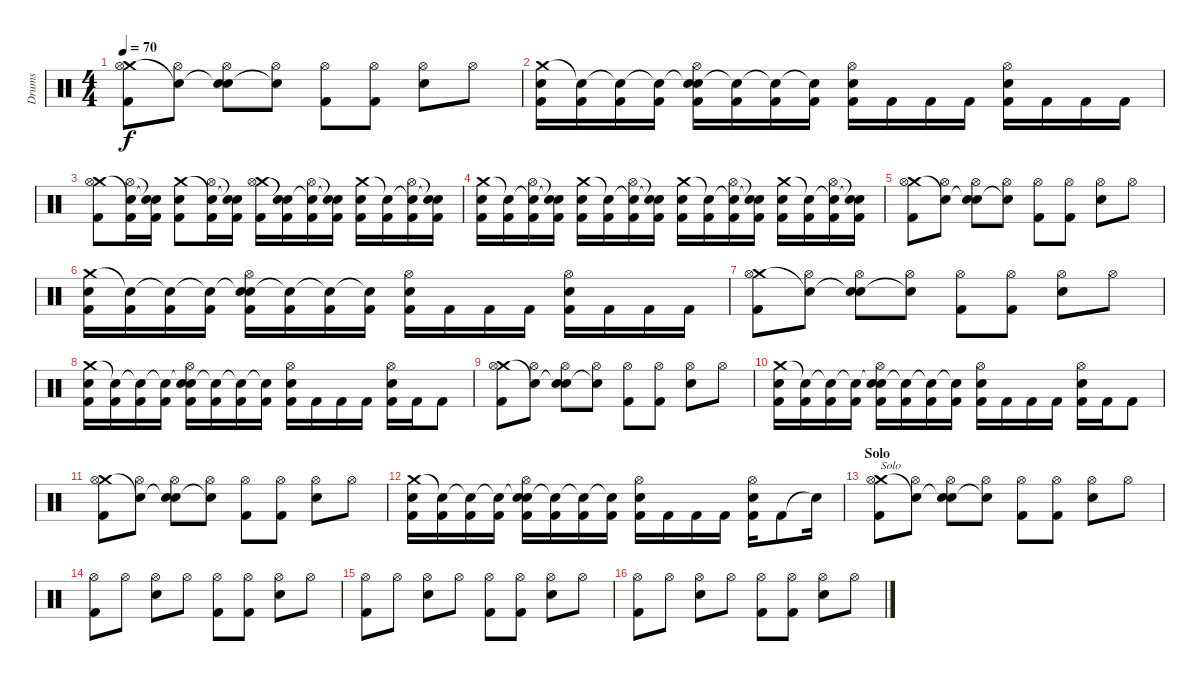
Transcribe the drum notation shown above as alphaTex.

\track ("Drums" "Drums") {instrument percussion}
\staff {score}
\articulation defaults
\ts (4 4)
\tempo 70
\clef neutral
\ks c
("Crash medium (hit)" "Hi-Hat (open)" "Kick (hit) 2").8{dy f} ("Snare (hit)"{t} "Hi-Hat (open)").8 ("Snare (hit)"{t} "Hi-Hat (open)" "Electric Snare (hit)").8 ("Snare (hit)"{t} "Hi-Hat (open)").8 ("Hi-Hat (open)" "Kick (hit) 2").8 ("Hi-Hat (open)" "Kick (hit) 2").8 ("Hi-Hat (open)" "Electric Snare (hit)").8 "Hi-Hat (open)".8 |
("Crash medium (hit)" "Electric Snare (hit)" "Kick (hit) 2").16 ("Snare (hit)"{t} "Kick (hit) 2").16 ("Snare (hit)"{t} "Kick (hit) 2").16 ("Snare (hit)"{t} "Kick (hit) 2").16 ("Snare (hit)"{t} "Hi-Hat (open)" "Electric Snare (hit)" "Kick (hit) 2").16 ("Snare (hit)"{t} "Kick (hit) 2").16 ("Snare (hit)"{t} "Kick (hit) 2").16 ("Snare (hit)"{t} "Kick (hit) 2").16 ("Hi-Hat (open)" "Electric Snare (hit)" "Kick (hit) 2").16 "Kick (hit) 2".16 "Kick (hit) 2".16 "Kick (hit) 2".16 ("Hi-Hat (open)" "Electric Snare (hit)" "Kick (hit) 2").16 "Kick (hit) 2".16 "Kick (hit) 2".16 "Kick (hit) 2".16 |
("Crash medium (hit)" "Hi-Hat (open)" "Kick (hit) 2").8 ("Snare (hit)"{t} "Hi-Hat (open)" "Kick (hit) 2").16 ("Snare (hit)"{t} "Snare (hit)"{t} "Kick (hit) 2").16 ("Crash medium (hit)" "Electric Snare (hit)" "Kick (hit) 2").8 ("Snare (hit)"{t} "Hi-Hat (open)" "Kick (hit) 2").16 ("Snare (hit)"{t} "Snare (hit)"{t} "Kick (hit) 2").16 ("Crash medium (hit)" "Hi-Hat (open)" "Kick (hit) 2").16 ("Snare (hit)"{t} "Snare (hit)"{t} "Kick (hit) 2").16 ("Snare (hit)"{t} "Hi-Hat (open)" "Kick (hit) 2").16 ("Snare (hit)"{t} "Snare (hit)"{t} "Kick (hit) 2").16 ("Crash medium (hit)" "Electric Snare (hit)" "Kick (hit) 2").16 ("Snare (hit)"{t} "Kick (hit) 2").16 ("Snare (hit)"{t} "Hi-Hat (open)" "Kick (hit) 2").16 ("Snare (hit)"{t} "Snare (hit)"{t} "Kick (hit) 2").16 |
("Crash medium (hit)" "Electric Snare (hit)" "Kick (hit) 2").16 ("Snare (hit)"{t} "Kick (hit) 2").16 ("Snare (hit)"{t} "Hi-Hat (open)" "Kick (hit) 2").16 ("Snare (hit)"{t} "Snare (hit)"{t} "Kick (hit) 2").16 ("Crash medium (hit)" "Electric Snare (hit)" "Kick (hit) 2").16 ("Snare (hit)"{t} "Kick (hit) 2").16 ("Snare (hit)"{t} "Hi-Hat (open)" "Kick (hit) 2").16 ("Snare (hit)"{t} "Snare (hit)"{t} "Kick (hit) 2").16 ("Crash medium (hit)" "Electric Snare (hit)" "Kick (hit) 2").16 ("Snare (hit)"{t} "Kick (hit) 2").16 ("Snare (hit)"{t} "Hi-Hat (open)" "Kick (hit) 2").16 ("Snare (hit)"{t} "Snare (hit)"{t} "Kick (hit) 2").16 ("Crash medium (hit)" "Electric Snare (hit)" "Kick (hit) 2").16 ("Snare (hit)"{t} "Kick (hit) 2").16 ("Snare (hit)"{t} "Hi-Hat (open)" "Kick (hit) 2").16 ("Snare (hit)"{t} "Snare (hit)"{t} "Kick (hit) 2").16 |
("Crash medium (hit)" "Hi-Hat (open)" "Kick (hit) 2").8 ("Snare (hit)"{t} "Hi-Hat (open)").8 ("Snare (hit)"{t} "Hi-Hat (open)" "Electric Snare (hit)").8 ("Snare (hit)"{t} "Hi-Hat (open)").8 ("Hi-Hat (open)" "Kick (hit) 2").8 ("Hi-Hat (open)" "Kick (hit) 2").8 ("Hi-Hat (open)" "Electric Snare (hit)").8 "Hi-Hat (open)".8 |
("Crash medium (hit)" "Electric Snare (hit)" "Kick (hit) 2").16 ("Snare (hit)"{t} "Kick (hit) 2").16 ("Snare (hit)"{t} "Kick (hit) 2").16 ("Snare (hit)"{t} "Kick (hit) 2").16 ("Snare (hit)"{t} "Hi-Hat (open)" "Electric Snare (hit)" "Kick (hit) 2").16 ("Snare (hit)"{t} "Kick (hit) 2").16 ("Snare (hit)"{t} "Kick (hit) 2").16 ("Snare (hit)"{t} "Kick (hit) 2").16 ("Hi-Hat (open)" "Electric Snare (hit)" "Kick (hit) 2").16 "Kick (hit) 2".16 "Kick (hit) 2".16 "Kick (hit) 2".16 ("Hi-Hat (open)" "Electric Snare (hit)" "Kick (hit) 2").16 "Kick (hit) 2".16 "Kick (hit) 2".16 "Kick (hit) 2".16 |
("Crash medium (hit)" "Hi-Hat (open)" "Kick (hit) 2").8 ("Snare (hit)"{t} "Hi-Hat (open)").8 ("Snare (hit)"{t} "Hi-Hat (open)" "Electric Snare (hit)").8 ("Snare (hit)"{t} "Hi-Hat (open)").8 ("Hi-Hat (open)" "Kick (hit) 2").8 ("Hi-Hat (open)" "Kick (hit) 2").8 ("Hi-Hat (open)" "Electric Snare (hit)").8 "Hi-Hat (open)".8 |
("Crash medium (hit)" "Electric Snare (hit)" "Kick (hit) 2").16 ("Snare (hit)"{t} "Kick (hit) 2").16 ("Snare (hit)"{t} "Kick (hit) 2").16 ("Snare (hit)"{t} "Kick (hit) 2").16 ("Snare (hit)"{t} "Hi-Hat (open)" "Electric Snare (hit)" "Kick (hit) 2").16 ("Snare (hit)"{t} "Kick (hit) 2").16 ("Snare (hit)"{t} "Kick (hit) 2").16 ("Snare (hit)"{t} "Kick (hit) 2").16 ("Hi-Hat (open)" "Electric Snare (hit)" "Kick (hit) 2").16 "Kick (hit) 2".16 "Kick (hit) 2".16 "Kick (hit) 2".16 ("Hi-Hat (open)" "Electric Snare (hit)" "Kick (hit) 2").16 "Kick (hit) 2".16 "Kick (hit) 2".8 |
("Crash medium (hit)" "Hi-Hat (open)" "Kick (hit) 2").8 ("Snare (hit)"{t} "Hi-Hat (open)").8 ("Snare (hit)"{t} "Hi-Hat (open)" "Electric Snare (hit)").8 ("Snare (hit)"{t} "Hi-Hat (open)").8 ("Hi-Hat (open)" "Kick (hit) 2").8 ("Hi-Hat (open)" "Kick (hit) 2").8 ("Hi-Hat (open)" "Electric Snare (hit)").8 "Hi-Hat (open)".8 |
("Crash medium (hit)" "Electric Snare (hit)" "Kick (hit) 2").16 ("Snare (hit)"{t} "Kick (hit) 2").16 ("Snare (hit)"{t} "Kick (hit) 2").16 ("Snare (hit)"{t} "Kick (hit) 2").16 ("Snare (hit)"{t} "Hi-Hat (open)" "Electric Snare (hit)" "Kick (hit) 2").16 ("Snare (hit)"{t} "Kick (hit) 2").16 ("Snare (hit)"{t} "Kick (hit) 2").16 ("Snare (hit)"{t} "Kick (hit) 2").16 ("Hi-Hat (open)" "Electric Snare (hit)" "Kick (hit) 2").16 "Kick (hit) 2".16 "Kick (hit) 2".16 "Kick (hit) 2".16 ("Hi-Hat (open)" "Electric Snare (hit)" "Kick (hit) 2").16 "Kick (hit) 2".16 "Kick (hit) 2".8 |
("Crash medium (hit)" "Hi-Hat (open)" "Kick (hit) 2").8 ("Snare (hit)"{t} "Hi-Hat (open)").8 ("Snare (hit)"{t} "Hi-Hat (open)" "Electric Snare (hit)").8 ("Snare (hit)"{t} "Hi-Hat (open)").8 ("Hi-Hat (open)" "Kick (hit) 2").8 ("Hi-Hat (open)" "Kick (hit) 2").8 ("Hi-Hat (open)" "Electric Snare (hit)").8 "Hi-Hat (open)".8 |
("Crash medium (hit)" "Electric Snare (hit)" "Kick (hit) 2").16 ("Snare (hit)"{t} "Kick (hit) 2").16 ("Snare (hit)"{t} "Kick (hit) 2").16 ("Snare (hit)"{t} "Kick (hit) 2").16 ("Snare (hit)"{t} "Hi-Hat (open)" "Electric Snare (hit)" "Kick (hit) 2").16 ("Snare (hit)"{t} "Kick (hit) 2").16 ("Snare (hit)"{t} "Kick (hit) 2").16 ("Snare (hit)"{t} "Kick (hit) 2").16 ("Hi-Hat (open)" "Electric Snare (hit)" "Kick (hit) 2").16 "Kick (hit) 2".16 "Kick (hit) 2".16 "Kick (hit) 2".16 ("Hi-Hat (open)" "Electric Snare (hit)" "Kick (hit) 2").16 "Kick (hit) 2".8 "Snare (hit)"{t}.16 |
\section ("" "Solo")
("Crash medium (hit)" "Hi-Hat (open)" "Kick (hit) 2").8{txt "Solo"} ("Snare (hit)"{t} "Hi-Hat (open)").8 ("Snare (hit)"{t} "Hi-Hat (open)" "Electric Snare (hit)").8 ("Snare (hit)"{t} "Hi-Hat (open)").8 ("Hi-Hat (open)" "Kick (hit) 2").8 ("Hi-Hat (open)" "Kick (hit) 2").8 ("Hi-Hat (open)" "Electric Snare (hit)").8 "Hi-Hat (open)".8 |
("Hi-Hat (open)" "Kick (hit) 2").8 "Hi-Hat (open)".8 ("Hi-Hat (open)" "Electric Snare (hit)").8 "Hi-Hat (open)".8 ("Hi-Hat (open)" "Kick (hit) 2").8 ("Hi-Hat (open)" "Kick (hit) 2").8 ("Hi-Hat (open)" "Electric Snare (hit)").8 "Hi-Hat (open)".8 |
("Hi-Hat (open)" "Kick (hit) 2").8 "Hi-Hat (open)".8 ("Hi-Hat (open)" "Electric Snare (hit)").8 "Hi-Hat (open)".8 ("Hi-Hat (open)" "Kick (hit) 2").8 ("Hi-Hat (open)" "Kick (hit) 2").8 ("Hi-Hat (open)" "Electric Snare (hit)").8 "Hi-Hat (open)".8 |
("Hi-Hat (open)" "Kick (hit) 2").8 "Hi-Hat (open)".8 ("Hi-Hat (open)" "Electric Snare (hit)").8 "Hi-Hat (open)".8 ("Hi-Hat (open)" "Kick (hit) 2").8 ("Hi-Hat (open)" "Kick (hit) 2").8 ("Hi-Hat (open)" "Electric Snare (hit)").8 "Hi-Hat (open)".8
